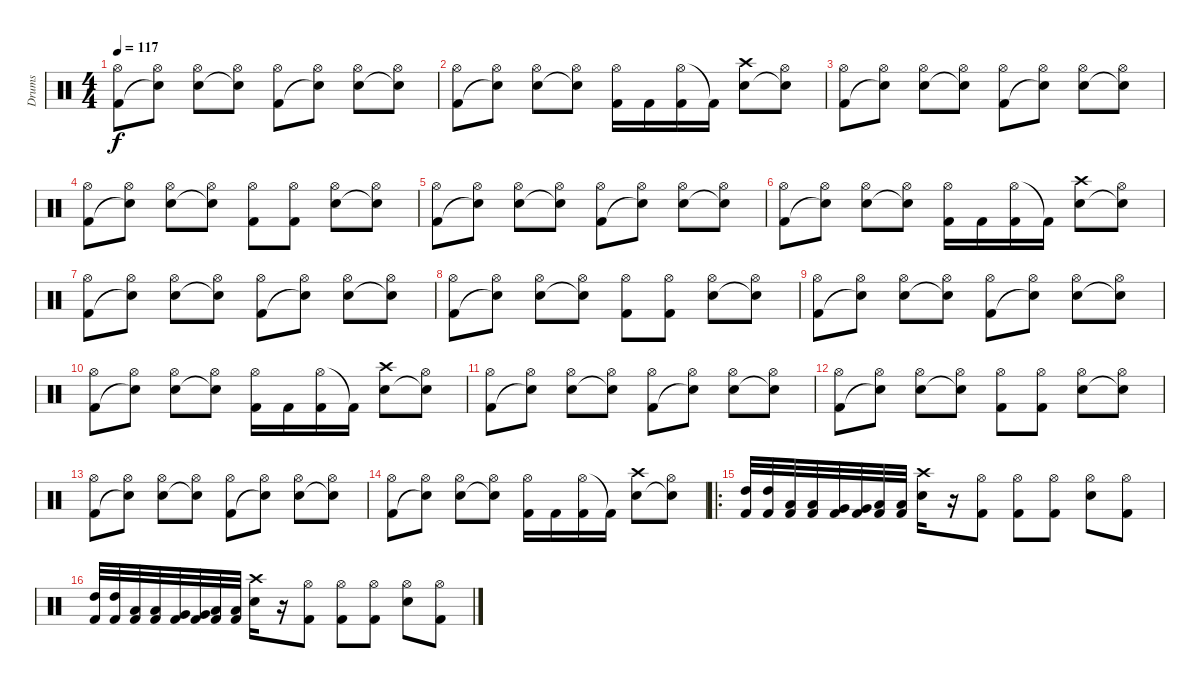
\track ("Drums" "Drums") {instrument percussion}
\staff {score}
\articulation defaults
\ts (4 4)
\tempo 117
\clef neutral
\ks c
("Hi-Hat (open)" "Kick (hit) 2").8{dy f} ("Hi-Hat (open)" "Snare (hit)"{t}).8 ("Hi-Hat (open)" "Electric Snare (hit)").8 ("Hi-Hat (open)" "Snare (hit)"{t}).8 ("Hi-Hat (open)" "Kick (hit) 2").8 ("Hi-Hat (open)" "Snare (hit)"{t}).8 ("Hi-Hat (open)" "Electric Snare (hit)").8 ("Hi-Hat (open)" "Snare (hit)"{t}).8 |
("Hi-Hat (open)" "Kick (hit) 2").8 ("Hi-Hat (open)" "Snare (hit)"{t}).8 ("Hi-Hat (open)" "Electric Snare (hit)").8 ("Hi-Hat (open)" "Snare (hit)"{t}).8 ("Hi-Hat (open)" "Kick (hit) 2").16 "Kick (hit) 2".16 ("Hi-Hat (open)" "Kick (hit) 2").16 "Kick (hit) 2"{t}.16 ("Crash high (hit)" "Electric Snare (hit)").8 ("Hi-Hat (open)" "Snare (hit)"{t}).8 |
("Hi-Hat (open)" "Kick (hit) 2").8 ("Hi-Hat (open)" "Snare (hit)"{t}).8 ("Hi-Hat (open)" "Electric Snare (hit)").8 ("Hi-Hat (open)" "Snare (hit)"{t}).8 ("Hi-Hat (open)" "Kick (hit) 2").8 ("Hi-Hat (open)" "Snare (hit)"{t}).8 ("Hi-Hat (open)" "Electric Snare (hit)").8 ("Hi-Hat (open)" "Snare (hit)"{t}).8 |
("Hi-Hat (open)" "Kick (hit) 2").8 ("Hi-Hat (open)" "Snare (hit)"{t}).8 ("Hi-Hat (open)" "Electric Snare (hit)").8 ("Hi-Hat (open)" "Snare (hit)"{t}).8 ("Hi-Hat (open)" "Kick (hit) 2").8 ("Hi-Hat (open)" "Kick (hit) 2").8 ("Hi-Hat (open)" "Electric Snare (hit)").8 ("Hi-Hat (open)" "Snare (hit)"{t}).8 |
("Hi-Hat (open)" "Kick (hit) 2").8 ("Hi-Hat (open)" "Snare (hit)"{t}).8 ("Hi-Hat (open)" "Electric Snare (hit)").8 ("Hi-Hat (open)" "Snare (hit)"{t}).8 ("Hi-Hat (open)" "Kick (hit) 2").8 ("Hi-Hat (open)" "Snare (hit)"{t}).8 ("Hi-Hat (open)" "Electric Snare (hit)").8 ("Hi-Hat (open)" "Snare (hit)"{t}).8 |
("Hi-Hat (open)" "Kick (hit) 2").8 ("Hi-Hat (open)" "Snare (hit)"{t}).8 ("Hi-Hat (open)" "Electric Snare (hit)").8 ("Hi-Hat (open)" "Snare (hit)"{t}).8 ("Hi-Hat (open)" "Kick (hit) 2").16 "Kick (hit) 2".16 ("Hi-Hat (open)" "Kick (hit) 2").16 "Kick (hit) 2"{t}.16 ("Crash high (hit)" "Electric Snare (hit)").8 ("Hi-Hat (open)" "Snare (hit)"{t}).8 |
("Hi-Hat (open)" "Kick (hit) 2").8 ("Hi-Hat (open)" "Snare (hit)"{t}).8 ("Hi-Hat (open)" "Electric Snare (hit)").8 ("Hi-Hat (open)" "Snare (hit)"{t}).8 ("Hi-Hat (open)" "Kick (hit) 2").8 ("Hi-Hat (open)" "Snare (hit)"{t}).8 ("Hi-Hat (open)" "Electric Snare (hit)").8 ("Hi-Hat (open)" "Snare (hit)"{t}).8 |
("Hi-Hat (open)" "Kick (hit) 2").8 ("Hi-Hat (open)" "Snare (hit)"{t}).8 ("Hi-Hat (open)" "Electric Snare (hit)").8 ("Hi-Hat (open)" "Snare (hit)"{t}).8 ("Hi-Hat (open)" "Kick (hit) 2").8 ("Hi-Hat (open)" "Kick (hit) 2").8 ("Hi-Hat (open)" "Electric Snare (hit)").8 ("Hi-Hat (open)" "Snare (hit)"{t}).8 |
("Hi-Hat (open)" "Kick (hit) 2").8 ("Hi-Hat (open)" "Snare (hit)"{t}).8 ("Hi-Hat (open)" "Electric Snare (hit)").8 ("Hi-Hat (open)" "Snare (hit)"{t}).8 ("Hi-Hat (open)" "Kick (hit) 2").8 ("Hi-Hat (open)" "Snare (hit)"{t}).8 ("Hi-Hat (open)" "Electric Snare (hit)").8 ("Hi-Hat (open)" "Snare (hit)"{t}).8 |
("Hi-Hat (open)" "Kick (hit) 2").8 ("Hi-Hat (open)" "Snare (hit)"{t}).8 ("Hi-Hat (open)" "Electric Snare (hit)").8 ("Hi-Hat (open)" "Snare (hit)"{t}).8 ("Hi-Hat (open)" "Kick (hit) 2").16 "Kick (hit) 2".16 ("Hi-Hat (open)" "Kick (hit) 2").16 "Kick (hit) 2"{t}.16 ("Crash high (hit)" "Electric Snare (hit)").8 ("Hi-Hat (open)" "Snare (hit)"{t}).8 |
("Hi-Hat (open)" "Kick (hit) 2").8 ("Hi-Hat (open)" "Snare (hit)"{t}).8 ("Hi-Hat (open)" "Electric Snare (hit)").8 ("Hi-Hat (open)" "Snare (hit)"{t}).8 ("Hi-Hat (open)" "Kick (hit) 2").8 ("Hi-Hat (open)" "Snare (hit)"{t}).8 ("Hi-Hat (open)" "Electric Snare (hit)").8 ("Hi-Hat (open)" "Snare (hit)"{t}).8 |
("Hi-Hat (open)" "Kick (hit) 2").8 ("Hi-Hat (open)" "Snare (hit)"{t}).8 ("Hi-Hat (open)" "Electric Snare (hit)").8 ("Hi-Hat (open)" "Snare (hit)"{t}).8 ("Hi-Hat (open)" "Kick (hit) 2").8 ("Hi-Hat (open)" "Kick (hit) 2").8 ("Hi-Hat (open)" "Electric Snare (hit)").8 ("Hi-Hat (open)" "Snare (hit)"{t}).8 |
("Hi-Hat (open)" "Kick (hit) 2").8 ("Hi-Hat (open)" "Snare (hit)"{t}).8 ("Hi-Hat (open)" "Electric Snare (hit)").8 ("Hi-Hat (open)" "Snare (hit)"{t}).8 ("Hi-Hat (open)" "Kick (hit) 2").8 ("Hi-Hat (open)" "Snare (hit)"{t}).8 ("Hi-Hat (open)" "Electric Snare (hit)").8 ("Hi-Hat (open)" "Snare (hit)"{t}).8 |
("Hi-Hat (open)" "Kick (hit) 2").8 ("Hi-Hat (open)" "Snare (hit)"{t}).8 ("Hi-Hat (open)" "Electric Snare (hit)").8 ("Hi-Hat (open)" "Snare (hit)"{t}).8 ("Hi-Hat (open)" "Kick (hit) 2").16 "Kick (hit) 2".16 ("Hi-Hat (open)" "Kick (hit) 2").16 "Kick (hit) 2"{t}.16 ("Crash high (hit)" "Electric Snare (hit)").8 ("Hi-Hat (open)" "Snare (hit)"{t}).8 |
\ro
("High Tom (hit)" "Kick (hit) 2").32 ("High Tom (hit)" "Kick (hit) 2").32 ("Low Tom (hit)" "Kick (hit) 2").32 ("Low Tom (hit)" "Kick (hit) 2").32 ("Very Low Tom (hit)" "Kick (hit) 2").32 ("Very Low Tom (hit)" "Kick (hit) 2").32 ("Low Floor Tom (hit)" "Kick (hit) 2").32 ("Low Floor Tom (hit)" "Kick (hit) 2").32 ("Crash high (hit)" "Electric Snare (hit)").16 r.16 ("Hi-Hat (open)" "Kick (hit) 2").8 ("Hi-Hat (open)" "Kick (hit) 2").8 ("Hi-Hat (open)" "Kick (hit) 2").8 ("Hi-Hat (open)" "Electric Snare (hit)").8 ("Hi-Hat (open)" "Kick (hit) 2").8 |
("High Tom (hit)" "Kick (hit) 2").32 ("High Tom (hit)" "Kick (hit) 2").32 ("Low Tom (hit)" "Kick (hit) 2").32 ("Low Tom (hit)" "Kick (hit) 2").32 ("Very Low Tom (hit)" "Kick (hit) 2").32 ("Very Low Tom (hit)" "Kick (hit) 2").32 ("Low Floor Tom (hit)" "Kick (hit) 2").32 ("Low Floor Tom (hit)" "Kick (hit) 2").32 ("Crash high (hit)" "Electric Snare (hit)").16 r.16 ("Hi-Hat (open)" "Kick (hit) 2").8 ("Hi-Hat (open)" "Kick (hit) 2").8 ("Hi-Hat (open)" "Kick (hit) 2").8 ("Hi-Hat (open)" "Electric Snare (hit)").8 ("Hi-Hat (open)" "Kick (hit) 2").8
